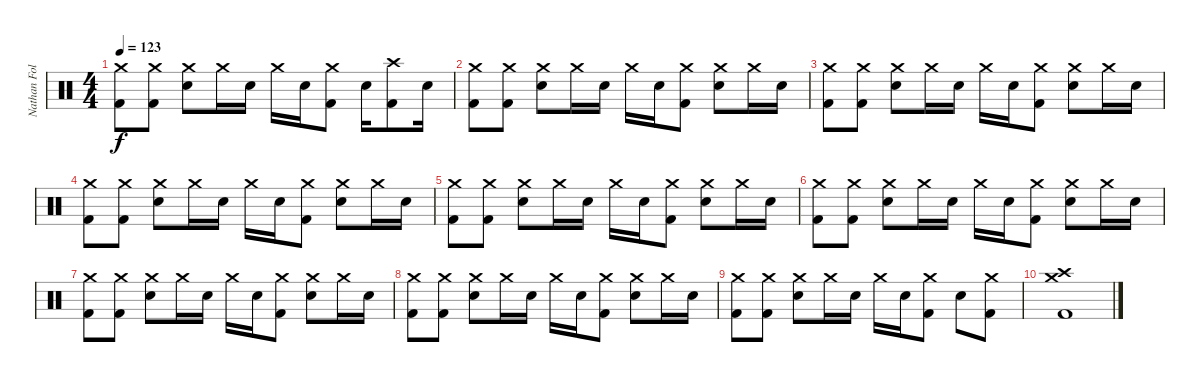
\track ("Nathan Followill" "Nathan Fol") {instrument percussion}
\staff {score}
\articulation defaults
\ts (4 4)
\tempo 123
\clef neutral
\ks c
("Crash medium (hit)" "Kick (hit) 2").8{dy f} ("Crash medium (hit)" "Kick (hit) 2").8 ("Crash medium (hit)" "Electric Snare (hit)").8 "Crash medium (hit)".16 "Electric Snare (hit)".16 "Crash medium (hit)".16 "Electric Snare (hit)".16 ("Crash medium (hit)" "Kick (hit) 2").8 "Electric Snare (hit)".16 ("Crash high (hit)" "Kick (hit) 2").8 "Electric Snare (hit)".16 |
("Crash medium (hit)" "Kick (hit) 2").8 ("Crash medium (hit)" "Kick (hit) 2").8 ("Crash medium (hit)" "Electric Snare (hit)").8 "Crash medium (hit)".16 "Electric Snare (hit)".16 "Crash medium (hit)".16 "Electric Snare (hit)".16 ("Crash medium (hit)" "Kick (hit) 2").8 ("Crash medium (hit)" "Electric Snare (hit)").8 "Crash medium (hit)".16 "Electric Snare (hit)".16 |
("Crash medium (hit)" "Kick (hit) 2").8 ("Crash medium (hit)" "Kick (hit) 2").8 ("Crash medium (hit)" "Electric Snare (hit)").8 "Crash medium (hit)".16 "Electric Snare (hit)".16 "Crash medium (hit)".16 "Electric Snare (hit)".16 ("Crash medium (hit)" "Kick (hit) 2").8 ("Crash medium (hit)" "Electric Snare (hit)").8 "Crash medium (hit)".16 "Electric Snare (hit)".16 |
("Crash medium (hit)" "Kick (hit) 2").8 ("Crash medium (hit)" "Kick (hit) 2").8 ("Crash medium (hit)" "Electric Snare (hit)").8 "Crash medium (hit)".16 "Electric Snare (hit)".16 "Crash medium (hit)".16 "Electric Snare (hit)".16 ("Crash medium (hit)" "Kick (hit) 2").8 ("Crash medium (hit)" "Electric Snare (hit)").8 "Crash medium (hit)".16 "Electric Snare (hit)".16 |
("Crash medium (hit)" "Kick (hit) 2").8 ("Crash medium (hit)" "Kick (hit) 2").8 ("Crash medium (hit)" "Electric Snare (hit)").8 "Crash medium (hit)".16 "Electric Snare (hit)".16 "Crash medium (hit)".16 "Electric Snare (hit)".16 ("Crash medium (hit)" "Kick (hit) 2").8 ("Crash medium (hit)" "Electric Snare (hit)").8 "Crash medium (hit)".16 "Electric Snare (hit)".16 |
("Crash medium (hit)" "Kick (hit) 2").8 ("Crash medium (hit)" "Kick (hit) 2").8 ("Crash medium (hit)" "Electric Snare (hit)").8 "Crash medium (hit)".16 "Electric Snare (hit)".16 "Crash medium (hit)".16 "Electric Snare (hit)".16 ("Crash medium (hit)" "Kick (hit) 2").8 ("Crash medium (hit)" "Electric Snare (hit)").8 "Crash medium (hit)".16 "Electric Snare (hit)".16 |
("Crash medium (hit)" "Kick (hit) 2").8 ("Crash medium (hit)" "Kick (hit) 2").8 ("Crash medium (hit)" "Electric Snare (hit)").8 "Crash medium (hit)".16 "Electric Snare (hit)".16 "Crash medium (hit)".16 "Electric Snare (hit)".16 ("Crash medium (hit)" "Kick (hit) 2").8 ("Crash medium (hit)" "Electric Snare (hit)").8 "Crash medium (hit)".16 "Electric Snare (hit)".16 |
("Crash medium (hit)" "Kick (hit) 2").8 ("Crash medium (hit)" "Kick (hit) 2").8 ("Crash medium (hit)" "Electric Snare (hit)").8 "Crash medium (hit)".16 "Electric Snare (hit)".16 "Crash medium (hit)".16 "Electric Snare (hit)".16 ("Crash medium (hit)" "Kick (hit) 2").8 ("Crash medium (hit)" "Electric Snare (hit)").8 "Crash medium (hit)".16 "Electric Snare (hit)".16 |
("Crash medium (hit)" "Kick (hit) 2").8 ("Crash medium (hit)" "Kick (hit) 2").8 ("Crash medium (hit)" "Electric Snare (hit)").8 "Crash medium (hit)".16 "Electric Snare (hit)".16 "Crash medium (hit)".16 "Electric Snare (hit)".16 ("Crash medium (hit)" "Kick (hit) 2").8 "Electric Snare (hit)".8 ("Crash medium (hit)" "Kick (hit) 2").8 |
("Crash high (hit)" "Crash medium (hit)" "Kick (hit) 2").1
